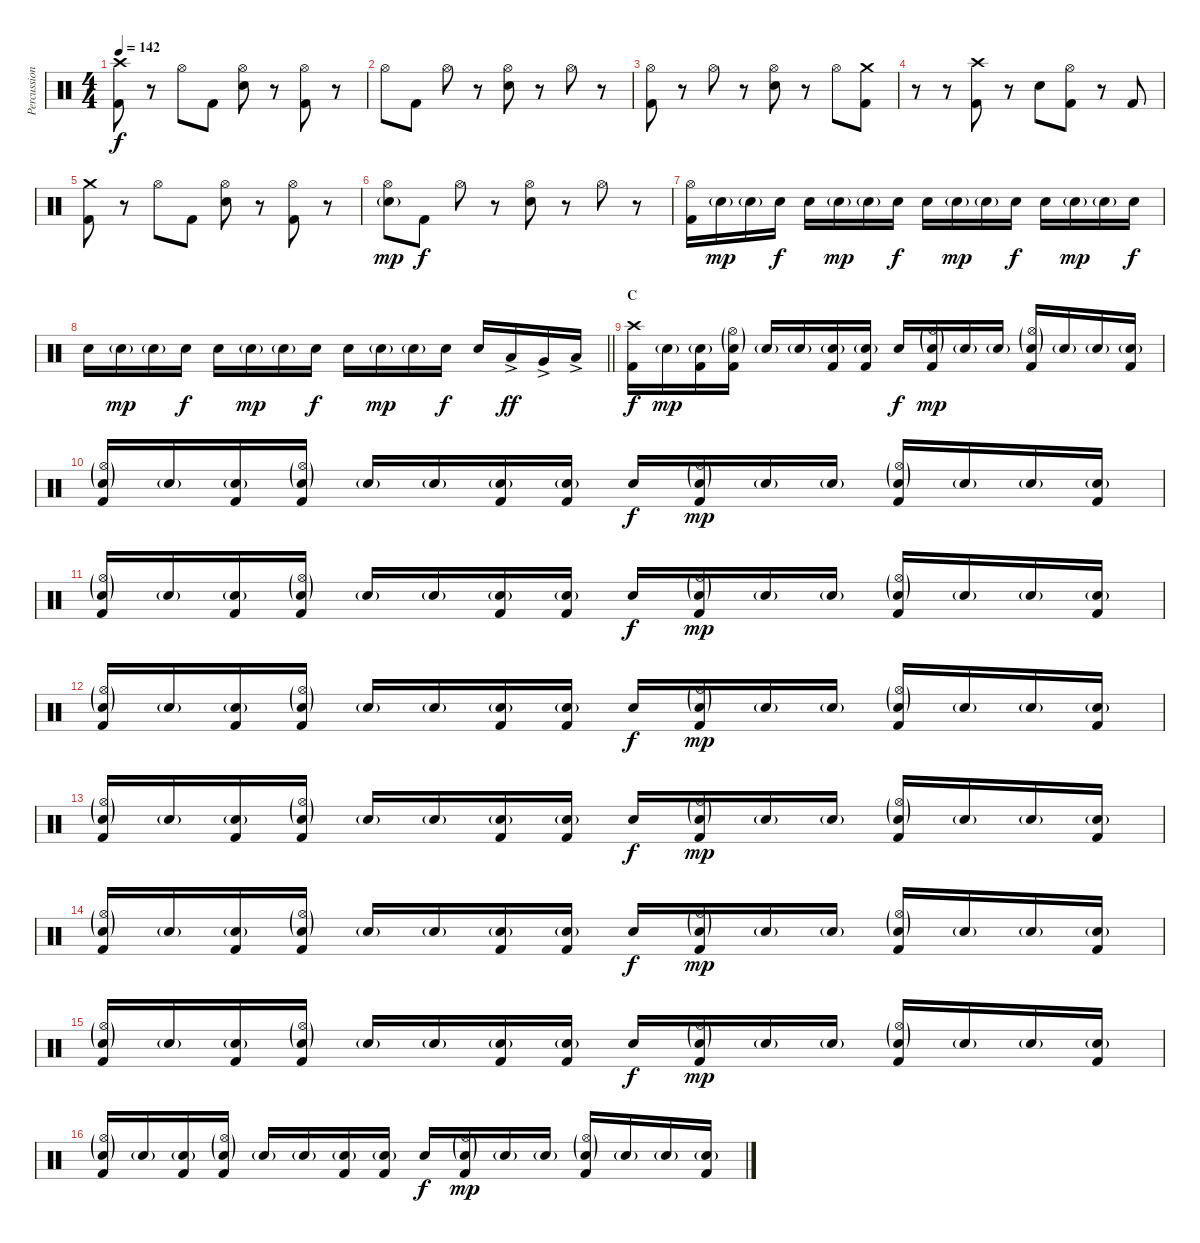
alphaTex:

\track ("Percussion" "Percussion") {instrument percussion}
\staff {score}
\articulation defaults
\ts (4 4)
\tempo 142
\clef neutral
\ks c
("Crash high (hit)" "Kick (hit) 2").8{dy f} r.8 "Hi-Hat (open)".8 "Kick (hit) 2".8 ("Hi-Hat (open)" "Electric Snare (hit)").8 r.8 ("Hi-Hat (open)" "Kick (hit) 2").8 r.8 |
"Hi-Hat (open)".8 "Kick (hit) 2".8 "Hi-Hat (open)".8 r.8 ("Hi-Hat (open)" "Electric Snare (hit)").8 r.8 "Hi-Hat (open)".8 r.8 |
("Hi-Hat (open)" "Kick (hit) 2").8 r.8 "Hi-Hat (open)".8 r.8 ("Hi-Hat (open)" "Electric Snare (hit)").8 r.8 "Hi-Hat (open)".8 ("Crash medium (hit)" "Kick (hit) 2").8 |
r.8 r.8 ("Crash high (hit)" "Kick (hit) 2").8 r.8 "Electric Snare (hit)".8 ("Hi-Hat (open)" "Kick (hit) 2").8 r.8 "Kick (hit) 2".8 |
("Crash medium (hit)" "Kick (hit) 2").8 r.8 "Hi-Hat (open)".8 "Kick (hit) 2".8 ("Hi-Hat (open)" "Electric Snare (hit)").8 r.8 ("Hi-Hat (open)" "Kick (hit) 2").8 r.8 |
("Hi-Hat (open)" "Electric Snare (hit)"{g}).8{dy mp} "Kick (hit) 2".8{dy f} "Hi-Hat (open)".8 r.8 ("Hi-Hat (open)" "Electric Snare (hit)").8 r.8 "Hi-Hat (open)".8 r.8 |
("Hi-Hat (open)" "Kick (hit) 2").16 "Electric Snare (hit)"{g}.16{dy mp} "Electric Snare (hit)"{g}.16 "Electric Snare (hit)".16{dy f} "Electric Snare (hit)".16 "Electric Snare (hit)"{g}.16{dy mp} "Electric Snare (hit)"{g}.16 "Electric Snare (hit)".16{dy f} "Electric Snare (hit)".16 "Electric Snare (hit)"{g}.16{dy mp} "Electric Snare (hit)"{g}.16 "Electric Snare (hit)".16{dy f} "Electric Snare (hit)".16 "Electric Snare (hit)"{g}.16{dy mp} "Electric Snare (hit)"{g}.16 "Electric Snare (hit)".16{dy f} |
\barLineRight lightlight "Electric Snare (hit)".16 "Electric Snare (hit)"{g}.16{dy mp} "Electric Snare (hit)"{g}.16 "Electric Snare (hit)".16{dy f} "Electric Snare (hit)".16 "Electric Snare (hit)"{g}.16{dy mp} "Electric Snare (hit)"{g}.16 "Electric Snare (hit)".16{dy f} "Electric Snare (hit)".16 "Electric Snare (hit)"{g}.16{dy mp} "Electric Snare (hit)"{g}.16 "Electric Snare (hit)".16{dy f} "Electric Snare (hit)".16 "Low Tom (hit)"{ac}.16{dy ff} "Very Low Tom (hit)"{ac}.16 "Low Floor Tom (hit)"{ac}.16
|
\section ("" "C")
("Crash high (hit)" "Kick (hit) 2").16{dy f} "Electric Snare (hit)"{g}.16{dy mp} ("Electric Snare (hit)"{g} "Kick (hit) 2").16 ("Hi-Hat (open)"{g} "Electric Snare (hit)"{g} "Kick (hit) 2").16 "Electric Snare (hit)"{g}.16 "Electric Snare (hit)"{g}.16 ("Electric Snare (hit)"{g} "Kick (hit) 2").16 ("Electric Snare (hit)"{g} "Kick (hit) 2").16 "Electric Snare (hit)".16{dy f} ("Hi-Hat (open)"{g} "Electric Snare (hit)"{g} "Kick (hit) 2").16{dy mp} "Electric Snare (hit)"{g}.16 "Electric Snare (hit)"{g}.16 ("Hi-Hat (open)"{g} "Electric Snare (hit)"{g} "Kick (hit) 2").16 "Electric Snare (hit)"{g}.16 "Electric Snare (hit)"{g}.16 ("Electric Snare (hit)"{g} "Kick (hit) 2").16 |
("Hi-Hat (open)"{g} "Electric Snare (hit)"{g} "Kick (hit) 2").16 "Electric Snare (hit)"{g}.16 ("Electric Snare (hit)"{g} "Kick (hit) 2").16 ("Hi-Hat (open)"{g} "Electric Snare (hit)"{g} "Kick (hit) 2").16 "Electric Snare (hit)"{g}.16 "Electric Snare (hit)"{g}.16 ("Electric Snare (hit)"{g} "Kick (hit) 2").16 ("Electric Snare (hit)"{g} "Kick (hit) 2").16 "Electric Snare (hit)".16{dy f} ("Hi-Hat (open)"{g} "Electric Snare (hit)"{g} "Kick (hit) 2").16{dy mp} "Electric Snare (hit)"{g}.16 "Electric Snare (hit)"{g}.16 ("Hi-Hat (open)"{g} "Electric Snare (hit)"{g} "Kick (hit) 2").16 "Electric Snare (hit)"{g}.16 "Electric Snare (hit)"{g}.16 ("Electric Snare (hit)"{g} "Kick (hit) 2").16 |
("Hi-Hat (open)"{g} "Electric Snare (hit)"{g} "Kick (hit) 2").16 "Electric Snare (hit)"{g}.16 ("Electric Snare (hit)"{g} "Kick (hit) 2").16 ("Hi-Hat (open)"{g} "Electric Snare (hit)"{g} "Kick (hit) 2").16 "Electric Snare (hit)"{g}.16 "Electric Snare (hit)"{g}.16 ("Electric Snare (hit)"{g} "Kick (hit) 2").16 ("Electric Snare (hit)"{g} "Kick (hit) 2").16 "Electric Snare (hit)".16{dy f} ("Hi-Hat (open)"{g} "Electric Snare (hit)"{g} "Kick (hit) 2").16{dy mp} "Electric Snare (hit)"{g}.16 "Electric Snare (hit)"{g}.16 ("Hi-Hat (open)"{g} "Electric Snare (hit)"{g} "Kick (hit) 2").16 "Electric Snare (hit)"{g}.16 "Electric Snare (hit)"{g}.16 ("Electric Snare (hit)"{g} "Kick (hit) 2").16 |
("Hi-Hat (open)"{g} "Electric Snare (hit)"{g} "Kick (hit) 2").16 "Electric Snare (hit)"{g}.16 ("Electric Snare (hit)"{g} "Kick (hit) 2").16 ("Hi-Hat (open)"{g} "Electric Snare (hit)"{g} "Kick (hit) 2").16 "Electric Snare (hit)"{g}.16 "Electric Snare (hit)"{g}.16 ("Electric Snare (hit)"{g} "Kick (hit) 2").16 ("Electric Snare (hit)"{g} "Kick (hit) 2").16 "Electric Snare (hit)".16{dy f} ("Hi-Hat (open)"{g} "Electric Snare (hit)"{g} "Kick (hit) 2").16{dy mp} "Electric Snare (hit)"{g}.16 "Electric Snare (hit)"{g}.16 ("Hi-Hat (open)"{g} "Electric Snare (hit)"{g} "Kick (hit) 2").16 "Electric Snare (hit)"{g}.16 "Electric Snare (hit)"{g}.16 ("Electric Snare (hit)"{g} "Kick (hit) 2").16 |
("Hi-Hat (open)"{g} "Electric Snare (hit)"{g} "Kick (hit) 2").16 "Electric Snare (hit)"{g}.16 ("Electric Snare (hit)"{g} "Kick (hit) 2").16 ("Hi-Hat (open)"{g} "Electric Snare (hit)"{g} "Kick (hit) 2").16 "Electric Snare (hit)"{g}.16 "Electric Snare (hit)"{g}.16 ("Electric Snare (hit)"{g} "Kick (hit) 2").16 ("Electric Snare (hit)"{g} "Kick (hit) 2").16 "Electric Snare (hit)".16{dy f} ("Hi-Hat (open)"{g} "Electric Snare (hit)"{g} "Kick (hit) 2").16{dy mp} "Electric Snare (hit)"{g}.16 "Electric Snare (hit)"{g}.16 ("Hi-Hat (open)"{g} "Electric Snare (hit)"{g} "Kick (hit) 2").16 "Electric Snare (hit)"{g}.16 "Electric Snare (hit)"{g}.16 ("Electric Snare (hit)"{g} "Kick (hit) 2").16 |
("Hi-Hat (open)"{g} "Electric Snare (hit)"{g} "Kick (hit) 2").16 "Electric Snare (hit)"{g}.16 ("Electric Snare (hit)"{g} "Kick (hit) 2").16 ("Hi-Hat (open)"{g} "Electric Snare (hit)"{g} "Kick (hit) 2").16 "Electric Snare (hit)"{g}.16 "Electric Snare (hit)"{g}.16 ("Electric Snare (hit)"{g} "Kick (hit) 2").16 ("Electric Snare (hit)"{g} "Kick (hit) 2").16 "Electric Snare (hit)".16{dy f} ("Hi-Hat (open)"{g} "Electric Snare (hit)"{g} "Kick (hit) 2").16{dy mp} "Electric Snare (hit)"{g}.16 "Electric Snare (hit)"{g}.16 ("Hi-Hat (open)"{g} "Electric Snare (hit)"{g} "Kick (hit) 2").16 "Electric Snare (hit)"{g}.16 "Electric Snare (hit)"{g}.16 ("Electric Snare (hit)"{g} "Kick (hit) 2").16 |
("Hi-Hat (open)"{g} "Electric Snare (hit)"{g} "Kick (hit) 2").16 "Electric Snare (hit)"{g}.16 ("Electric Snare (hit)"{g} "Kick (hit) 2").16 ("Hi-Hat (open)"{g} "Electric Snare (hit)"{g} "Kick (hit) 2").16 "Electric Snare (hit)"{g}.16 "Electric Snare (hit)"{g}.16 ("Electric Snare (hit)"{g} "Kick (hit) 2").16 ("Electric Snare (hit)"{g} "Kick (hit) 2").16 "Electric Snare (hit)".16{dy f} ("Hi-Hat (open)"{g} "Electric Snare (hit)"{g} "Kick (hit) 2").16{dy mp} "Electric Snare (hit)"{g}.16 "Electric Snare (hit)"{g}.16 ("Hi-Hat (open)"{g} "Electric Snare (hit)"{g} "Kick (hit) 2").16 "Electric Snare (hit)"{g}.16 "Electric Snare (hit)"{g}.16 ("Electric Snare (hit)"{g} "Kick (hit) 2").16 |
("Hi-Hat (open)"{g} "Electric Snare (hit)"{g} "Kick (hit) 2").16 "Electric Snare (hit)"{g}.16 ("Electric Snare (hit)"{g} "Kick (hit) 2").16 ("Hi-Hat (open)"{g} "Electric Snare (hit)"{g} "Kick (hit) 2").16 "Electric Snare (hit)"{g}.16 "Electric Snare (hit)"{g}.16 ("Electric Snare (hit)"{g} "Kick (hit) 2").16 ("Electric Snare (hit)"{g} "Kick (hit) 2").16 "Electric Snare (hit)".16{dy f} ("Hi-Hat (open)"{g} "Electric Snare (hit)"{g} "Kick (hit) 2").16{dy mp} "Electric Snare (hit)"{g}.16 "Electric Snare (hit)"{g}.16 ("Hi-Hat (open)"{g} "Electric Snare (hit)"{g} "Kick (hit) 2").16 "Electric Snare (hit)"{g}.16 "Electric Snare (hit)"{g}.16 ("Electric Snare (hit)"{g} "Kick (hit) 2").16
